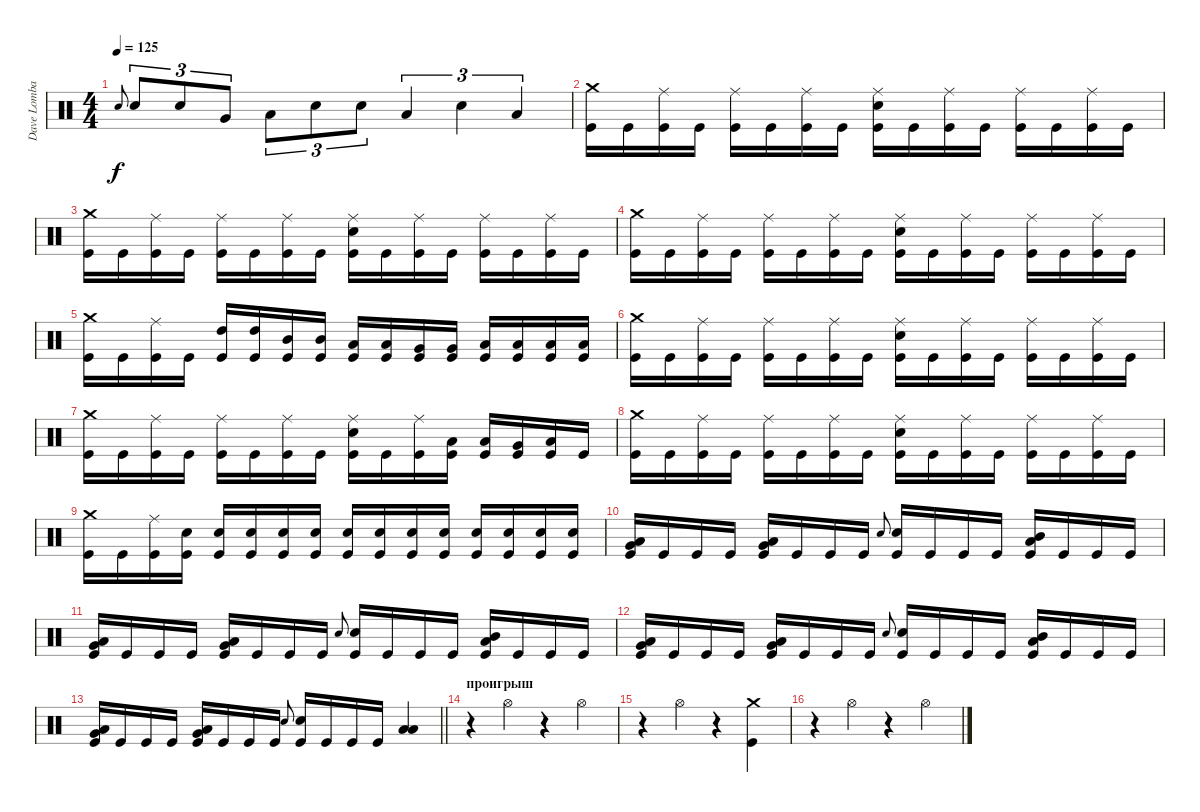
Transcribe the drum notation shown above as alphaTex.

\track ("Dave Lombardo" "Dave Lomba") {instrument percussion}
\staff {score}
\articulation defaults
\ts (4 4)
\tempo 125
\clef neutral
\ks c "Snare (hit) 2".8{gr onbeat dy f} "Snare (hit) 2".8{tu (3 2)} "Snare (hit) 2".8{tu (3 2)} "Very Low Tom (hit)".8{tu (3 2)} "Low Floor Tom (hit)".8{tu (3 2)} "Snare (hit) 2".8{tu (3 2)} "Snare (hit) 2".8{tu (3 2)} "Low Floor Tom (hit)".4{tu (3 2)} "Snare (hit) 2".4{tu (3 2)} "Low Floor Tom (hit)".4{tu (3 2)}
|
("Crash medium (hit)" "Kick (hit)").16 "Kick (hit)".16 ("Ride (middle)" "Kick (hit)").16 "Kick (hit)".16 ("Ride (middle)" "Kick (hit)").16 "Kick (hit)".16 ("Ride (middle)" "Kick (hit)").16 "Kick (hit)".16 ("Ride (middle)" "Snare (hit) 2" "Kick (hit)").16 "Kick (hit)".16 ("Ride (middle)" "Kick (hit)").16 "Kick (hit)".16 ("Ride (middle)" "Kick (hit)").16 "Kick (hit)".16 ("Ride (middle)" "Kick (hit)").16 "Kick (hit)".16 |
("Crash medium (hit)" "Kick (hit)").16 "Kick (hit)".16 ("Ride (middle)" "Kick (hit)").16 "Kick (hit)".16 ("Ride (middle)" "Kick (hit)").16 "Kick (hit)".16 ("Ride (middle)" "Kick (hit)").16 "Kick (hit)".16 ("Ride (middle)" "Snare (hit) 2" "Kick (hit)").16 "Kick (hit)".16 ("Ride (middle)" "Kick (hit)").16 "Kick (hit)".16 ("Ride (middle)" "Kick (hit)").16 "Kick (hit)".16 ("Ride (middle)" "Kick (hit)").16 "Kick (hit)".16 |
("Crash medium (hit)" "Kick (hit)").16 "Kick (hit)".16 ("Ride (middle)" "Kick (hit)").16 "Kick (hit)".16 ("Ride (middle)" "Kick (hit)").16 "Kick (hit)".16 ("Ride (middle)" "Kick (hit)").16 "Kick (hit)".16 ("Ride (middle)" "Snare (hit) 2" "Kick (hit)").16 "Kick (hit)".16 ("Ride (middle)" "Kick (hit)").16 "Kick (hit)".16 ("Ride (middle)" "Kick (hit)").16 "Kick (hit)".16 ("Ride (middle)" "Kick (hit)").16 "Kick (hit)".16 |
("Crash medium (hit)" "Kick (hit)").16 "Kick (hit)".16 ("Ride (middle)" "Kick (hit)").16 "Kick (hit)".16 ("High Tom (hit)" "Kick (hit)").16 ("High Tom (hit)" "Kick (hit)").16 ("Mid Tom (hit)" "Kick (hit)").16 ("Mid Tom (hit)" "Kick (hit)").16 ("Low Tom (hit)" "Kick (hit)").16 ("Low Tom (hit)" "Kick (hit)").16 ("Very Low Tom (hit)" "Kick (hit)").16 ("Very Low Tom (hit)" "Kick (hit)").16 ("Low Floor Tom (hit)" "Kick (hit)").16 ("Low Floor Tom (hit)" "Kick (hit)").16 ("Low Floor Tom (hit)" "Kick (hit)").16 ("Low Floor Tom (hit)" "Kick (hit)").16 |
("Crash medium (hit)" "Kick (hit)").16 "Kick (hit)".16 ("Ride (middle)" "Kick (hit)").16 "Kick (hit)".16 ("Ride (middle)" "Kick (hit)").16 "Kick (hit)".16 ("Ride (middle)" "Kick (hit)").16 "Kick (hit)".16 ("Ride (middle)" "Snare (hit) 2" "Kick (hit)").16 "Kick (hit)".16 ("Ride (middle)" "Kick (hit)").16 "Kick (hit)".16 ("Ride (middle)" "Kick (hit)").16 "Kick (hit)".16 ("Ride (middle)" "Kick (hit)").16 "Kick (hit)".16 |
("Crash medium (hit)" "Kick (hit)").16 "Kick (hit)".16 ("Ride (middle)" "Kick (hit)").16 "Kick (hit)".16 ("Ride (middle)" "Kick (hit)").16 "Kick (hit)".16 ("Ride (middle)" "Kick (hit)").16 "Kick (hit)".16 ("Ride (middle)" "Snare (hit) 2" "Kick (hit)").16 "Kick (hit)".16 ("Ride (middle)" "Kick (hit)").16 ("Low Tom (hit)" "Kick (hit)").16 ("Low Tom (hit)" "Kick (hit)").16 ("Very Low Tom (hit)" "Kick (hit)").16 ("Low Floor Tom (hit)" "Kick (hit)").16 "Kick (hit)".16 |
("Crash medium (hit)" "Kick (hit)").16 "Kick (hit)".16 ("Ride (middle)" "Kick (hit)").16 "Kick (hit)".16 ("Ride (middle)" "Kick (hit)").16 "Kick (hit)".16 ("Ride (middle)" "Kick (hit)").16 "Kick (hit)".16 ("Ride (middle)" "Snare (hit) 2" "Kick (hit)").16 "Kick (hit)".16 ("Ride (middle)" "Kick (hit)").16 "Kick (hit)".16 ("Ride (middle)" "Kick (hit)").16 "Kick (hit)".16 ("Ride (middle)" "Kick (hit)").16 "Kick (hit)".16 |
("Crash medium (hit)" "Kick (hit)").16 "Kick (hit)".16 ("Ride (middle)" "Kick (hit)").16 ("Snare (hit) 2" "Kick (hit)").16 ("Snare (hit) 2" "Kick (hit)").16 ("Snare (hit) 2" "Kick (hit)").16 ("Snare (hit) 2" "Kick (hit)").16 ("Snare (hit) 2" "Kick (hit)").16 ("Snare (hit) 2" "Kick (hit)").16 ("Snare (hit) 2" "Kick (hit)").16 ("Snare (hit) 2" "Kick (hit)").16 ("Snare (hit) 2" "Kick (hit)").16 ("Snare (hit) 2" "Kick (hit)").16 ("Snare (hit) 2" "Kick (hit)").16 ("Snare (hit) 2" "Kick (hit)").16 ("Snare (hit) 2" "Kick (hit)").16 |
("Low Tom (hit)" "Very Low Tom (hit)" "Kick (hit)").16 "Kick (hit)".16 "Kick (hit)".16 "Kick (hit)".16 ("Very Low Tom (hit)" "Low Floor Tom (hit)" "Kick (hit)").16 "Kick (hit)".16 "Kick (hit)".16 "Kick (hit)".16 "Snare (hit) 2".8{gr onbeat} ("Snare (hit) 2" "Kick (hit)").16 "Kick (hit)".16 "Kick (hit)".16 "Kick (hit)".16 ("Mid Tom (hit)" "Low Tom (hit)" "Kick (hit)").16 "Kick (hit)".16 "Kick (hit)".16 "Kick (hit)".16 |
("Low Tom (hit)" "Very Low Tom (hit)" "Kick (hit)").16 "Kick (hit)".16 "Kick (hit)".16 "Kick (hit)".16 ("Very Low Tom (hit)" "Low Floor Tom (hit)" "Kick (hit)").16 "Kick (hit)".16 "Kick (hit)".16 "Kick (hit)".16 "Snare (hit) 2".8{gr onbeat} ("Snare (hit) 2" "Kick (hit)").16 "Kick (hit)".16 "Kick (hit)".16 "Kick (hit)".16 ("Mid Tom (hit)" "Low Tom (hit)" "Kick (hit)").16 "Kick (hit)".16 "Kick (hit)".16 "Kick (hit)".16 |
("Low Tom (hit)" "Very Low Tom (hit)" "Kick (hit)").16 "Kick (hit)".16 "Kick (hit)".16 "Kick (hit)".16 ("Very Low Tom (hit)" "Low Floor Tom (hit)" "Kick (hit)").16 "Kick (hit)".16 "Kick (hit)".16 "Kick (hit)".16 "Snare (hit) 2".8{gr onbeat} ("Snare (hit) 2" "Kick (hit)").16 "Kick (hit)".16 "Kick (hit)".16 "Kick (hit)".16 ("Mid Tom (hit)" "Low Tom (hit)" "Kick (hit)").16 "Kick (hit)".16 "Kick (hit)".16 "Kick (hit)".16 |
\barLineRight lightlight
("Low Tom (hit)" "Very Low Tom (hit)" "Kick (hit)").16 "Kick (hit)".16 "Kick (hit)".16 "Kick (hit)".16 ("Very Low Tom (hit)" "Low Floor Tom (hit)" "Kick (hit)").16 "Kick (hit)".16 "Kick (hit)".16 "Kick (hit)".16 "Snare (hit) 2".8{gr onbeat} ("Snare (hit) 2" "Kick (hit)").16 "Kick (hit)".16 "Kick (hit)".16 "Kick (hit)".16 ("Low Floor Tom (hit)" "Low Floor Tom (hit)").4 |
\section ("" "проигрыш")
r.4 "Hi-Hat (open)".4 r.4 "Hi-Hat (open)".4 |
r.4 "Hi-Hat (open)".4 r.4 ("Crash medium (hit)" "Kick (hit)").4 |
r.4 "Hi-Hat (open)".4 r.4 "Hi-Hat (open)".4
